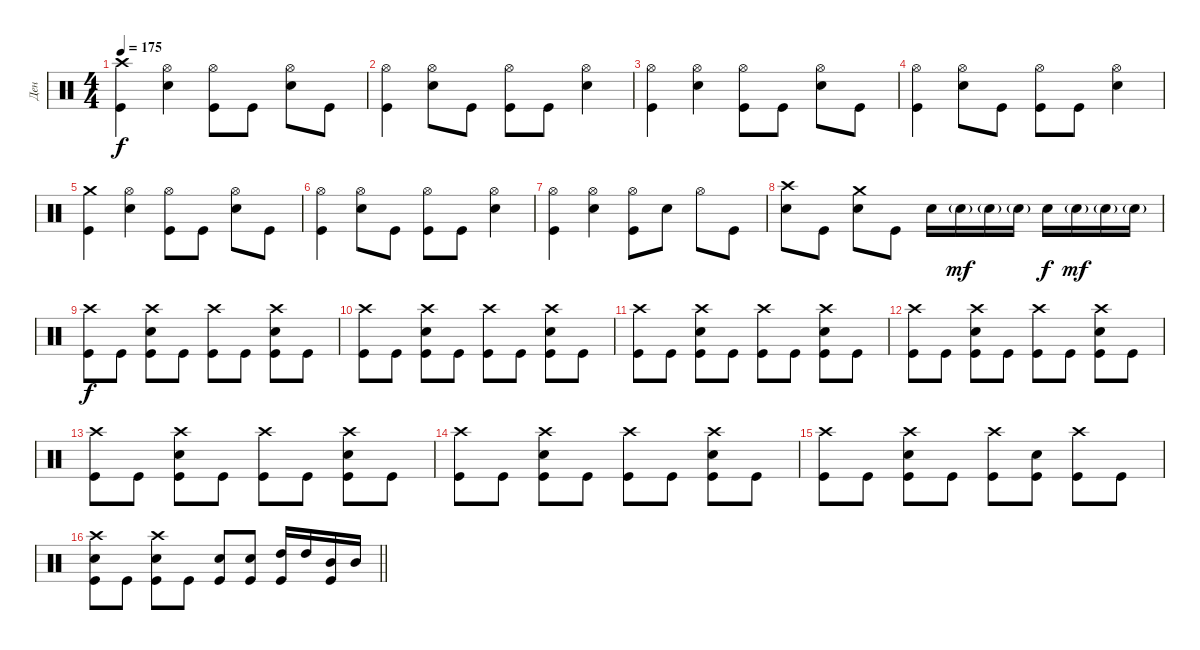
\track ("Ден" "Ден") {instrument percussion}
\staff {score}
\articulation defaults
\ts (4 4)
\tempo 175
\clef neutral
\ks c
("Crash high (hit)" "Kick (hit)").4{dy f} ("Hi-Hat (open)" "Snare (hit) 2").4 ("Hi-Hat (open)" "Kick (hit)").8 "Kick (hit)".8 ("Hi-Hat (open)" "Snare (hit) 2").8 "Kick (hit)".8 |
("Hi-Hat (open)" "Kick (hit)").4 ("Hi-Hat (open)" "Snare (hit) 2").8 "Kick (hit)".8 ("Hi-Hat (open)" "Kick (hit)").8 "Kick (hit)".8 ("Hi-Hat (open)" "Snare (hit) 2").4 |
("Hi-Hat (open)" "Kick (hit)").4 ("Hi-Hat (open)" "Snare (hit) 2").4 ("Hi-Hat (open)" "Kick (hit)").8 "Kick (hit)".8 ("Hi-Hat (open)" "Snare (hit) 2").8 "Kick (hit)".8 |
("Hi-Hat (open)" "Kick (hit)").4 ("Hi-Hat (open)" "Snare (hit) 2").8 "Kick (hit)".8 ("Hi-Hat (open)" "Kick (hit)").8 "Kick (hit)".8 ("Hi-Hat (open)" "Snare (hit) 2").4 |
("Crash medium (hit)" "Kick (hit)").4 ("Hi-Hat (open)" "Snare (hit) 2").4 ("Hi-Hat (open)" "Kick (hit)").8 "Kick (hit)".8 ("Hi-Hat (open)" "Snare (hit) 2").8 "Kick (hit)".8 |
("Hi-Hat (open)" "Kick (hit)").4 ("Hi-Hat (open)" "Snare (hit) 2").8 "Kick (hit)".8 ("Hi-Hat (open)" "Kick (hit)").8 "Kick (hit)".8 ("Hi-Hat (open)" "Snare (hit) 2").4 |
("Hi-Hat (open)" "Kick (hit)").4 ("Hi-Hat (open)" "Snare (hit) 2").4 ("Hi-Hat (open)" "Kick (hit)").8 "Snare (hit) 2".8 "Hi-Hat (open)".8 "Kick (hit)".8 |
("Crash high (hit)" "Snare (hit) 2").8 "Kick (hit)".8 ("Crash medium (hit)" "Snare (hit) 2").8 "Kick (hit)".8 "Snare (hit) 2".16 "Snare (hit) 2"{g}.16{dy mf} "Snare (hit) 2"{g}.16 "Snare (hit) 2"{g}.16 "Snare (hit) 2".16{dy f} "Snare (hit) 2"{g}.16{dy mf} "Snare (hit) 2"{g}.16 "Snare (hit) 2"{g}.16 |
("Crash high (hit)" "Kick (hit)").8{dy f} "Kick (hit)".8 ("Crash high (hit)" "Snare (hit) 2" "Kick (hit)").8 "Kick (hit)".8 ("Crash high (hit)" "Kick (hit)").8 "Kick (hit)".8 ("Crash high (hit)" "Snare (hit) 2" "Kick (hit)").8 "Kick (hit)".8 |
("Crash high (hit)" "Kick (hit)").8 "Kick (hit)".8 ("Crash high (hit)" "Snare (hit) 2" "Kick (hit)").8 "Kick (hit)".8 ("Crash high (hit)" "Kick (hit)").8 "Kick (hit)".8 ("Crash high (hit)" "Snare (hit) 2" "Kick (hit)").8 "Kick (hit)".8 |
("Crash high (hit)" "Kick (hit)").8 "Kick (hit)".8 ("Crash high (hit)" "Snare (hit) 2" "Kick (hit)").8 "Kick (hit)".8 ("Crash high (hit)" "Kick (hit)").8 "Kick (hit)".8 ("Crash high (hit)" "Snare (hit) 2" "Kick (hit)").8 "Kick (hit)".8 |
("Crash high (hit)" "Kick (hit)").8 "Kick (hit)".8 ("Crash high (hit)" "Snare (hit) 2" "Kick (hit)").8 "Kick (hit)".8 ("Crash high (hit)" "Kick (hit)").8 "Kick (hit)".8 ("Crash high (hit)" "Snare (hit) 2" "Kick (hit)").8 "Kick (hit)".8 |
("Crash high (hit)" "Kick (hit)").8 "Kick (hit)".8 ("Crash high (hit)" "Snare (hit) 2" "Kick (hit)").8 "Kick (hit)".8 ("Crash high (hit)" "Kick (hit)").8 "Kick (hit)".8 ("Crash high (hit)" "Snare (hit) 2" "Kick (hit)").8 "Kick (hit)".8 |
("Crash high (hit)" "Kick (hit)").8 "Kick (hit)".8 ("Crash high (hit)" "Snare (hit) 2" "Kick (hit)").8 "Kick (hit)".8 ("Crash high (hit)" "Kick (hit)").8 "Kick (hit)".8 ("Crash high (hit)" "Snare (hit) 2" "Kick (hit)").8 "Kick (hit)".8 |
("Crash high (hit)" "Kick (hit)").8 "Kick (hit)".8 ("Crash high (hit)" "Snare (hit) 2" "Kick (hit)").8 "Kick (hit)".8 ("Crash high (hit)" "Kick (hit)").8 ("Snare (hit) 2" "Kick (hit)").8 ("Crash high (hit)" "Kick (hit)").8 "Kick (hit)".8 |
\barLineRight lightlight
("Crash high (hit)" "Snare (hit) 2" "Kick (hit)").8 "Kick (hit)".8 ("Crash high (hit)" "Snare (hit) 2" "Kick (hit)").8 "Kick (hit)".8 ("Snare (hit) 2" "Kick (hit)").8 ("Snare (hit) 2" "Kick (hit)").8 ("High Tom (hit)" "Kick (hit)").16 "High Tom (hit)".16 ("Mid Tom (hit)" "Kick (hit)").16 "Mid Tom (hit)".16
